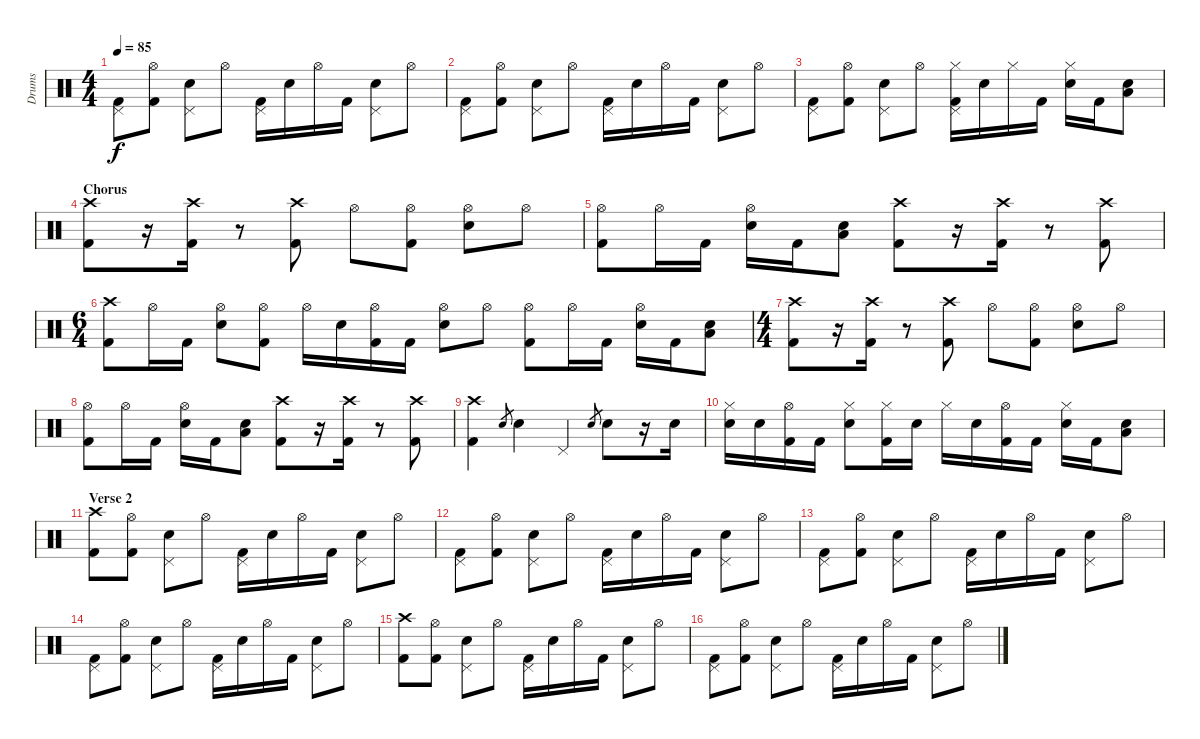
\track ("Drums" "Drums") {instrument percussion}
\staff {score}
\articulation defaults
\ts (4 4)
\tempo 85
\clef neutral
\ks c
("Pedal Hi-Hat (hit)" "Kick (hit) 2").8{dy f} ("Hi-Hat (open)" "Kick (hit) 2").8 ("Electric Snare (hit)" "Pedal Hi-Hat (hit)").8 "Hi-Hat (open)".8 ("Pedal Hi-Hat (hit)" "Kick (hit) 2").16 "Electric Snare (hit)".16 "Hi-Hat (open)".16 "Kick (hit) 2".16 ("Electric Snare (hit)" "Pedal Hi-Hat (hit)").8 "Hi-Hat (open)".8 |
("Pedal Hi-Hat (hit)" "Kick (hit) 2").8 ("Hi-Hat (open)" "Kick (hit) 2").8 ("Electric Snare (hit)" "Pedal Hi-Hat (hit)").8 "Hi-Hat (open)".8 ("Pedal Hi-Hat (hit)" "Kick (hit) 2").16 "Electric Snare (hit)".16 "Hi-Hat (open)".16 "Kick (hit) 2".16 ("Electric Snare (hit)" "Pedal Hi-Hat (hit)").8 "Hi-Hat (open)".8 |
("Pedal Hi-Hat (hit)" "Kick (hit) 2").8 ("Hi-Hat (open)" "Kick (hit) 2").8 ("Electric Snare (hit)" "Pedal Hi-Hat (hit)").8 "Hi-Hat (open)".8 ("Hi-Hat (closed)" "Pedal Hi-Hat (hit)" "Kick (hit) 2").16 "Electric Snare (hit)".16 "Hi-Hat (closed)".16 "Kick (hit) 2".16 ("Hi-Hat (closed)" "Electric Snare (hit)").16 "Kick (hit) 2".16 ("Electric Snare (hit)" "Low Floor Tom (hit)").8 |
\section ("" "Chorus")
("Crash high (hit)" "Kick (hit) 2").8 r.16 ("Crash high (hit)" "Kick (hit) 2").16 r.8 ("Crash high (hit)" "Kick (hit) 2").8 "Hi-Hat (open)".8 ("Hi-Hat (open)" "Kick (hit) 2").8 ("Hi-Hat (open)" "Electric Snare (hit)").8 "Hi-Hat (open)".8 |
("Hi-Hat (open)" "Kick (hit) 2").8 "Hi-Hat (open)".16 "Kick (hit) 2".16 ("Hi-Hat (open)" "Electric Snare (hit)").16 "Kick (hit) 2".16 ("Electric Snare (hit)" "Low Floor Tom (hit)").8 ("Crash high (hit)" "Kick (hit) 2").8 r.16 ("Crash high (hit)" "Kick (hit) 2").16 r.8 ("Crash high (hit)" "Kick (hit) 2").8 |
\ts (6 4)
("Crash high (hit)" "Kick (hit) 2").8 "Hi-Hat (open)".16 "Kick (hit) 2".16 ("Hi-Hat (open)" "Electric Snare (hit)").8 ("Hi-Hat (open)" "Kick (hit) 2").8 "Hi-Hat (open)".16 "Electric Snare (hit)".16 ("Hi-Hat (open)" "Kick (hit) 2").16 "Kick (hit) 2".16 ("Hi-Hat (open)" "Electric Snare (hit)").8 "Hi-Hat (open)".8 ("Hi-Hat (open)" "Kick (hit) 2").8 "Hi-Hat (open)".16 "Kick (hit) 2".16 ("Hi-Hat (open)" "Electric Snare (hit)").16 "Kick (hit) 2".16 ("Electric Snare (hit)" "Low Floor Tom (hit)").8 |
\ts (4 4)
("Crash high (hit)" "Kick (hit) 2").8 r.16 ("Crash high (hit)" "Kick (hit) 2").16 r.8 ("Crash high (hit)" "Kick (hit) 2").8 "Hi-Hat (open)".8 ("Hi-Hat (open)" "Kick (hit) 2").8 ("Hi-Hat (open)" "Electric Snare (hit)").8 "Hi-Hat (open)".8 |
("Hi-Hat (open)" "Kick (hit) 2").8 "Hi-Hat (open)".16 "Kick (hit) 2".16 ("Hi-Hat (open)" "Electric Snare (hit)").16 "Kick (hit) 2".16 ("Electric Snare (hit)" "Low Floor Tom (hit)").8 ("Crash high (hit)" "Kick (hit) 2").8 r.16 ("Crash high (hit)" "Kick (hit) 2").16 r.8 ("Crash high (hit)" "Kick (hit) 2").8 |
("Crash high (hit)" "Kick (hit) 2").4 "Electric Snare (hit)".8{gr} "Electric Snare (hit)".4 "Pedal Hi-Hat (hit)".4 "Electric Snare (hit)".8{gr} "Electric Snare (hit)".8 r.16 "Electric Snare (hit)".16 |
("Hi-Hat (closed)" "Electric Snare (hit)").16 "Electric Snare (hit)".16 ("Hi-Hat (open)" "Kick (hit) 2").16 "Kick (hit) 2".16 ("Hi-Hat (closed)" "Electric Snare (hit)").8 ("Hi-Hat (closed)" "Kick (hit) 2").16 "Electric Snare (hit)".16 "Hi-Hat (closed)".16 "Electric Snare (hit)".16 ("Hi-Hat (open)" "Kick (hit) 2").16 "Kick (hit) 2".16 ("Hi-Hat (closed)" "Electric Snare (hit)").16 "Kick (hit) 2".16 ("Electric Snare (hit)" "Low Floor Tom (hit)").8 |
\section ("" "Verse 2")
("Crash high (hit)" "Kick (hit) 2").8 ("Hi-Hat (open)" "Kick (hit) 2").8 ("Electric Snare (hit)" "Pedal Hi-Hat (hit)").8 "Hi-Hat (open)".8 ("Pedal Hi-Hat (hit)" "Kick (hit) 2").16 "Electric Snare (hit)".16 "Hi-Hat (open)".16 "Kick (hit) 2".16 ("Electric Snare (hit)" "Pedal Hi-Hat (hit)").8 "Hi-Hat (open)".8 |
("Pedal Hi-Hat (hit)" "Kick (hit) 2").8 ("Hi-Hat (open)" "Kick (hit) 2").8 ("Electric Snare (hit)" "Pedal Hi-Hat (hit)").8 "Hi-Hat (open)".8 ("Pedal Hi-Hat (hit)" "Kick (hit) 2").16 "Electric Snare (hit)".16 "Hi-Hat (open)".16 "Kick (hit) 2".16 ("Electric Snare (hit)" "Pedal Hi-Hat (hit)").8 "Hi-Hat (open)".8 |
("Pedal Hi-Hat (hit)" "Kick (hit) 2").8 ("Hi-Hat (open)" "Kick (hit) 2").8 ("Electric Snare (hit)" "Pedal Hi-Hat (hit)").8 "Hi-Hat (open)".8 ("Pedal Hi-Hat (hit)" "Kick (hit) 2").16 "Electric Snare (hit)".16 "Hi-Hat (open)".16 "Kick (hit) 2".16 ("Electric Snare (hit)" "Pedal Hi-Hat (hit)").8 "Hi-Hat (open)".8 |
("Pedal Hi-Hat (hit)" "Kick (hit) 2").8 ("Hi-Hat (open)" "Kick (hit) 2").8 ("Electric Snare (hit)" "Pedal Hi-Hat (hit)").8 "Hi-Hat (open)".8 ("Pedal Hi-Hat (hit)" "Kick (hit) 2").16 "Electric Snare (hit)".16 "Hi-Hat (open)".16 "Kick (hit) 2".16 ("Electric Snare (hit)" "Pedal Hi-Hat (hit)").8 "Hi-Hat (open)".8 |
("Crash high (hit)" "Kick (hit) 2").8 ("Hi-Hat (open)" "Kick (hit) 2").8 ("Electric Snare (hit)" "Pedal Hi-Hat (hit)").8 "Hi-Hat (open)".8 ("Pedal Hi-Hat (hit)" "Kick (hit) 2").16 "Electric Snare (hit)".16 "Hi-Hat (open)".16 "Kick (hit) 2".16 ("Electric Snare (hit)" "Pedal Hi-Hat (hit)").8 "Hi-Hat (open)".8 |
("Pedal Hi-Hat (hit)" "Kick (hit) 2").8 ("Hi-Hat (open)" "Kick (hit) 2").8 ("Electric Snare (hit)" "Pedal Hi-Hat (hit)").8 "Hi-Hat (open)".8 ("Pedal Hi-Hat (hit)" "Kick (hit) 2").16 "Electric Snare (hit)".16 "Hi-Hat (open)".16 "Kick (hit) 2".16 ("Electric Snare (hit)" "Pedal Hi-Hat (hit)").8 "Hi-Hat (open)".8
